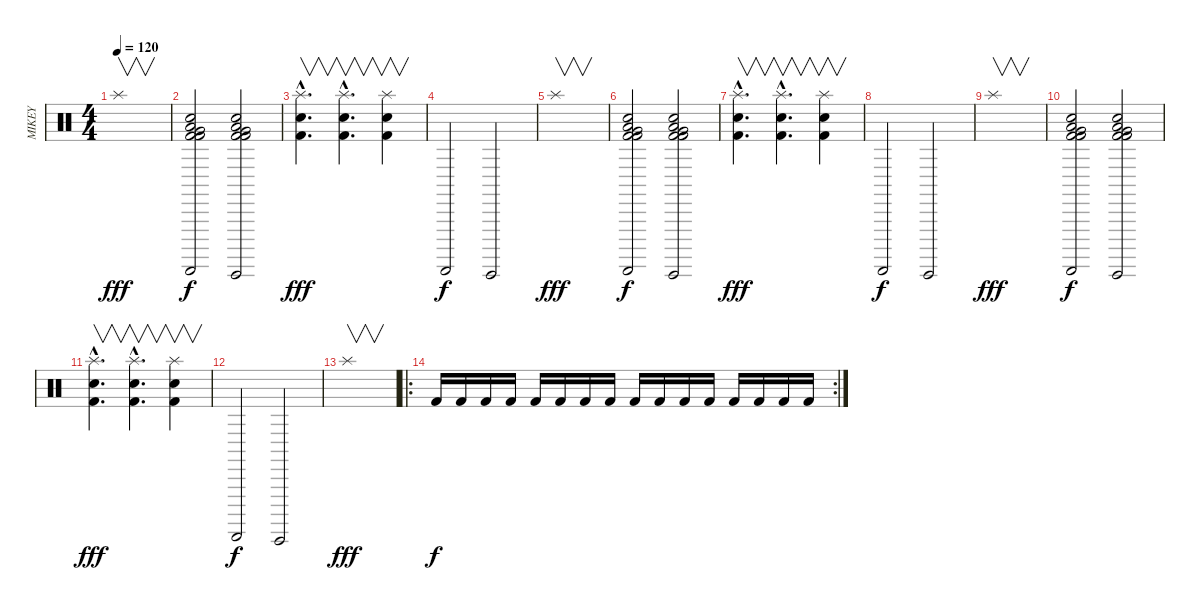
\track ("MIKEY" "MIKEY") {instrument percussion}
\staff {score}
\articulation defaults
\ts (4 4)
\tempo 120
\clef neutral
\ks c "Splash (hit)".1{v dy fff}
|
("Kick (hit) 2" "Low Tom (hit)" "Very Low Tom (hit)" "Snare (hit) 2" "Kick (hit) 2" "Guiro (scrap-return)").2{dy f} ("Kick (hit) 2" "Low Tom (hit)" "Very Low Tom (hit)" "Snare (hit) 2" "Kick (hit) 2" "Guiro (hit)").2 |
("Snare (hit) 2"{hac} "Kick (hit) 2"{hac} "Splash (hit)"{hac}).4{v d dy fff} ("Snare (hit) 2"{hac} "Kick (hit) 2"{hac} "Splash (hit)"{hac}).4{v d} ("Snare (hit) 2" "Kick (hit) 2" "Splash (hit)").4{v} |
"Guiro (scrap-return)".2{dy f} "Guiro (hit)".2 |
"Splash (hit)".1{v dy fff} |
("Kick (hit) 2" "Low Tom (hit)" "Very Low Tom (hit)" "Snare (hit) 2" "Kick (hit) 2" "Guiro (scrap-return)").2{dy f} ("Kick (hit) 2" "Low Tom (hit)" "Very Low Tom (hit)" "Snare (hit) 2" "Kick (hit) 2" "Guiro (hit)").2 |
("Snare (hit) 2"{hac} "Kick (hit) 2"{hac} "Splash (hit)"{hac}).4{v d dy fff} ("Snare (hit) 2"{hac} "Kick (hit) 2"{hac} "Splash (hit)"{hac}).4{v d} ("Snare (hit) 2" "Kick (hit) 2" "Splash (hit)").4{v} |
"Guiro (scrap-return)".2{dy f} "Guiro (hit)".2 |
"Splash (hit)".1{v dy fff} |
("Kick (hit) 2" "Low Tom (hit)" "Very Low Tom (hit)" "Snare (hit) 2" "Kick (hit) 2" "Guiro (scrap-return)").2{dy f} ("Kick (hit) 2" "Low Tom (hit)" "Very Low Tom (hit)" "Snare (hit) 2" "Kick (hit) 2" "Guiro (hit)").2 |
("Snare (hit) 2"{hac} "Kick (hit) 2"{hac} "Splash (hit)"{hac}).4{v d dy fff} ("Snare (hit) 2"{hac} "Kick (hit) 2"{hac} "Splash (hit)"{hac}).4{v d} ("Snare (hit) 2" "Kick (hit) 2" "Splash (hit)").4{v} |
"Guiro (scrap-return)".2{dy f} "Guiro (hit)".2 |
"Splash (hit)".1{v dy fff} |
\ro
\rc 2 "Kick (hit) 2".16{dy f} "Kick (hit) 2".16 "Kick (hit) 2".16 "Kick (hit) 2".16 "Kick (hit) 2".16 "Kick (hit) 2".16 "Kick (hit) 2".16 "Kick (hit) 2".16 "Kick (hit) 2".16 "Kick (hit) 2".16 "Kick (hit) 2".16 "Kick (hit) 2".16 "Kick (hit) 2".16 "Kick (hit) 2".16 "Kick (hit) 2".16 "Kick (hit) 2".16
